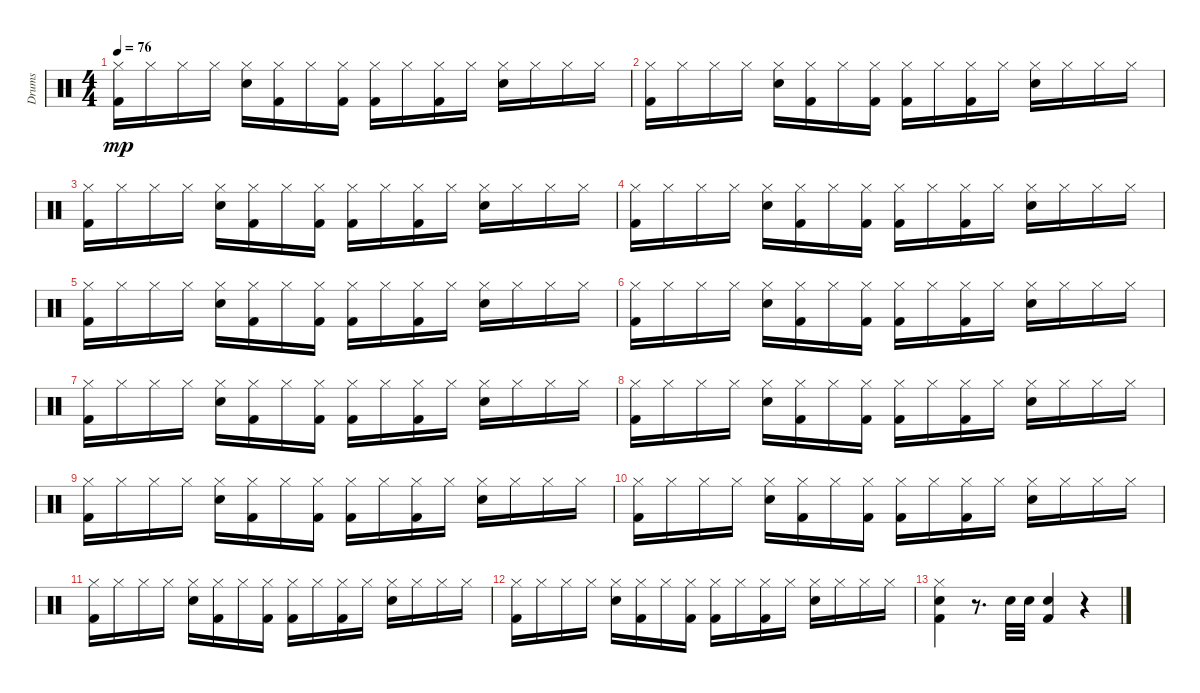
\track ("Drums" "Drums") {instrument percussion}
\staff {score}
\articulation defaults
\ts (4 4)
\tempo 76
\clef neutral
\ks c
("Hi-Hat (closed)" "Kick (hit) 2").16{dy mp} "Hi-Hat (closed)".16 "Hi-Hat (closed)".16 "Hi-Hat (closed)".16 ("Hi-Hat (closed)" "Snare (hit) 2").16 ("Hi-Hat (closed)" "Kick (hit) 2").16 "Hi-Hat (closed)".16 ("Hi-Hat (closed)" "Kick (hit) 2").16 ("Hi-Hat (closed)" "Kick (hit) 2").16 "Hi-Hat (closed)".16 ("Hi-Hat (closed)" "Kick (hit) 2").16 "Hi-Hat (closed)".16 ("Snare (hit) 2" "Hi-Hat (closed)").16 "Hi-Hat (closed)".16 "Hi-Hat (closed)".16 "Hi-Hat (closed)".16 |
("Hi-Hat (closed)" "Kick (hit) 2").16 "Hi-Hat (closed)".16 "Hi-Hat (closed)".16 "Hi-Hat (closed)".16 ("Hi-Hat (closed)" "Snare (hit) 2").16 ("Hi-Hat (closed)" "Kick (hit) 2").16 "Hi-Hat (closed)".16 ("Hi-Hat (closed)" "Kick (hit) 2").16 ("Hi-Hat (closed)" "Kick (hit) 2").16 "Hi-Hat (closed)".16 ("Hi-Hat (closed)" "Kick (hit) 2").16 "Hi-Hat (closed)".16 ("Snare (hit) 2" "Hi-Hat (closed)").16 "Hi-Hat (closed)".16 "Hi-Hat (closed)".16 "Hi-Hat (closed)".16 |
("Hi-Hat (closed)" "Kick (hit) 2").16 "Hi-Hat (closed)".16 "Hi-Hat (closed)".16 "Hi-Hat (closed)".16 ("Hi-Hat (closed)" "Snare (hit) 2").16 ("Hi-Hat (closed)" "Kick (hit) 2").16 "Hi-Hat (closed)".16 ("Hi-Hat (closed)" "Kick (hit) 2").16 ("Hi-Hat (closed)" "Kick (hit) 2").16 "Hi-Hat (closed)".16 ("Hi-Hat (closed)" "Kick (hit) 2").16 "Hi-Hat (closed)".16 ("Snare (hit) 2" "Hi-Hat (closed)").16 "Hi-Hat (closed)".16 "Hi-Hat (closed)".16 "Hi-Hat (closed)".16 |
("Hi-Hat (closed)" "Kick (hit) 2").16 "Hi-Hat (closed)".16 "Hi-Hat (closed)".16 "Hi-Hat (closed)".16 ("Hi-Hat (closed)" "Snare (hit) 2").16 ("Hi-Hat (closed)" "Kick (hit) 2").16 "Hi-Hat (closed)".16 ("Hi-Hat (closed)" "Kick (hit) 2").16 ("Hi-Hat (closed)" "Kick (hit) 2").16 "Hi-Hat (closed)".16 ("Hi-Hat (closed)" "Kick (hit) 2").16 "Hi-Hat (closed)".16 ("Snare (hit) 2" "Hi-Hat (closed)").16 "Hi-Hat (closed)".16 "Hi-Hat (closed)".16 "Hi-Hat (closed)".16 |
("Hi-Hat (closed)" "Kick (hit) 2").16 "Hi-Hat (closed)".16 "Hi-Hat (closed)".16 "Hi-Hat (closed)".16 ("Hi-Hat (closed)" "Snare (hit) 2").16 ("Hi-Hat (closed)" "Kick (hit) 2").16 "Hi-Hat (closed)".16 ("Hi-Hat (closed)" "Kick (hit) 2").16 ("Hi-Hat (closed)" "Kick (hit) 2").16 "Hi-Hat (closed)".16 ("Hi-Hat (closed)" "Kick (hit) 2").16 "Hi-Hat (closed)".16 ("Snare (hit) 2" "Hi-Hat (closed)").16 "Hi-Hat (closed)".16 "Hi-Hat (closed)".16 "Hi-Hat (closed)".16 |
("Hi-Hat (closed)" "Kick (hit) 2").16 "Hi-Hat (closed)".16 "Hi-Hat (closed)".16 "Hi-Hat (closed)".16 ("Hi-Hat (closed)" "Snare (hit) 2").16 ("Hi-Hat (closed)" "Kick (hit) 2").16 "Hi-Hat (closed)".16 ("Hi-Hat (closed)" "Kick (hit) 2").16 ("Hi-Hat (closed)" "Kick (hit) 2").16 "Hi-Hat (closed)".16 ("Hi-Hat (closed)" "Kick (hit) 2").16 "Hi-Hat (closed)".16 ("Snare (hit) 2" "Hi-Hat (closed)").16 "Hi-Hat (closed)".16 "Hi-Hat (closed)".16 "Hi-Hat (closed)".16 |
("Hi-Hat (closed)" "Kick (hit) 2").16 "Hi-Hat (closed)".16 "Hi-Hat (closed)".16 "Hi-Hat (closed)".16 ("Hi-Hat (closed)" "Snare (hit) 2").16 ("Hi-Hat (closed)" "Kick (hit) 2").16 "Hi-Hat (closed)".16 ("Hi-Hat (closed)" "Kick (hit) 2").16 ("Hi-Hat (closed)" "Kick (hit) 2").16 "Hi-Hat (closed)".16 ("Hi-Hat (closed)" "Kick (hit) 2").16 "Hi-Hat (closed)".16 ("Snare (hit) 2" "Hi-Hat (closed)").16 "Hi-Hat (closed)".16 "Hi-Hat (closed)".16 "Hi-Hat (closed)".16 |
("Hi-Hat (closed)" "Kick (hit) 2").16 "Hi-Hat (closed)".16 "Hi-Hat (closed)".16 "Hi-Hat (closed)".16 ("Hi-Hat (closed)" "Snare (hit) 2").16 ("Hi-Hat (closed)" "Kick (hit) 2").16 "Hi-Hat (closed)".16 ("Hi-Hat (closed)" "Kick (hit) 2").16 ("Hi-Hat (closed)" "Kick (hit) 2").16 "Hi-Hat (closed)".16 ("Hi-Hat (closed)" "Kick (hit) 2").16 "Hi-Hat (closed)".16 ("Snare (hit) 2" "Hi-Hat (closed)").16 "Hi-Hat (closed)".16 "Hi-Hat (closed)".16 "Hi-Hat (closed)".16 |
("Hi-Hat (closed)" "Kick (hit) 2").16 "Hi-Hat (closed)".16 "Hi-Hat (closed)".16 "Hi-Hat (closed)".16 ("Hi-Hat (closed)" "Snare (hit) 2").16 ("Hi-Hat (closed)" "Kick (hit) 2").16 "Hi-Hat (closed)".16 ("Hi-Hat (closed)" "Kick (hit) 2").16 ("Hi-Hat (closed)" "Kick (hit) 2").16 "Hi-Hat (closed)".16 ("Hi-Hat (closed)" "Kick (hit) 2").16 "Hi-Hat (closed)".16 ("Snare (hit) 2" "Hi-Hat (closed)").16 "Hi-Hat (closed)".16 "Hi-Hat (closed)".16 "Hi-Hat (closed)".16 |
("Hi-Hat (closed)" "Kick (hit) 2").16 "Hi-Hat (closed)".16 "Hi-Hat (closed)".16 "Hi-Hat (closed)".16 ("Hi-Hat (closed)" "Snare (hit) 2").16 ("Hi-Hat (closed)" "Kick (hit) 2").16 "Hi-Hat (closed)".16 ("Hi-Hat (closed)" "Kick (hit) 2").16 ("Hi-Hat (closed)" "Kick (hit) 2").16 "Hi-Hat (closed)".16 ("Hi-Hat (closed)" "Kick (hit) 2").16 "Hi-Hat (closed)".16 ("Snare (hit) 2" "Hi-Hat (closed)").16 "Hi-Hat (closed)".16 "Hi-Hat (closed)".16 "Hi-Hat (closed)".16 |
("Hi-Hat (closed)" "Kick (hit) 2").16 "Hi-Hat (closed)".16{volume 16} "Hi-Hat (closed)".16 "Hi-Hat (closed)".16 ("Hi-Hat (closed)" "Snare (hit) 2").16{volume 16} ("Hi-Hat (closed)" "Kick (hit) 2").16{volume 15} "Hi-Hat (closed)".16{volume 14} ("Hi-Hat (closed)" "Kick (hit) 2").16{volume 14} ("Hi-Hat (closed)" "Kick (hit) 2").16{volume 13} "Hi-Hat (closed)".16{volume 13} ("Hi-Hat (closed)" "Kick (hit) 2").16{volume 12} "Hi-Hat (closed)".16{volume 12} ("Snare (hit) 2" "Hi-Hat (closed)").16 "Hi-Hat (closed)".16{volume 12} "Hi-Hat (closed)".16 "Hi-Hat (closed)".16{volume 11} |
("Hi-Hat (closed)" "Kick (hit) 2").16{volume 11} "Hi-Hat (closed)".16{volume 11} "Hi-Hat (closed)".16{volume 11} "Hi-Hat (closed)".16{volume 10} ("Hi-Hat (closed)" "Snare (hit) 2").16{volume 10} ("Hi-Hat (closed)" "Kick (hit) 2").16{volume 10} "Hi-Hat (closed)".16{volume 9} ("Hi-Hat (closed)" "Kick (hit) 2").16{volume 9} ("Hi-Hat (closed)" "Kick (hit) 2").16{volume 8} "Hi-Hat (closed)".16{volume 8} ("Hi-Hat (closed)" "Kick (hit) 2").16{volume 7} "Hi-Hat (closed)".16{volume 7} ("Snare (hit) 2" "Hi-Hat (closed)").16{volume 6} "Hi-Hat (closed)".16 "Hi-Hat (closed)".16{volume 6} "Hi-Hat (closed)".16{volume 6} |
("Hi-Hat (closed)" "Kick (hit) 2" "Snare (hit) 2").4{volume 6} r.8{d} "Snare (hit) 2".32{volume 4} "Snare (hit) 2".32 ("Kick (hit) 2" "Snare (hit) 2").4{volume 3} r.4
